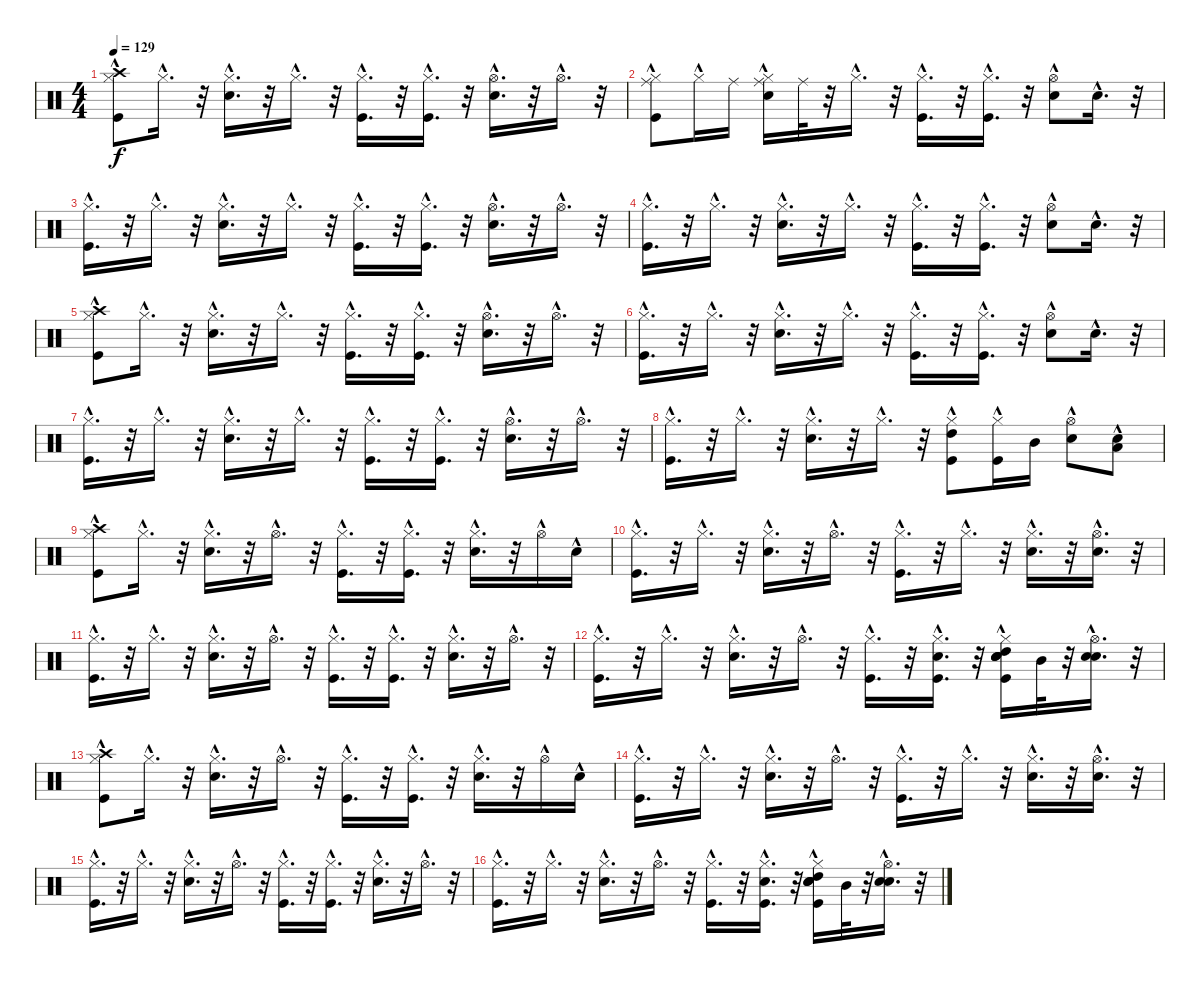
\track "" {instrument percussion}
\staff {score}
\articulation defaults
\ts (4 4)
\tempo 129
\clef neutral
\ks c
("Hi-Hat (closed)"{hac} "Kick (hit)"{hac} "Crash high (hit)").8{dy f} "Hi-Hat (closed)"{hac}.16{d} r.32 ("Snare (hit) 2"{hac} "Hi-Hat (closed)"{hac}).16{d} r.32 "Hi-Hat (closed)"{hac}.16{d} r.32 ("Kick (hit)"{hac} "Hi-Hat (closed)"{hac}).16{d} r.32 ("Kick (hit)"{hac} "Hi-Hat (closed)"{hac}).16{d} r.32 ("Hi-Hat (open)"{hac} "Snare (hit) 2"{hac}).16{d} r.32 "Hi-Hat (open)"{hac}.16{d} r.32 |
("Hi-Hat (closed)"{hac} "Ride (middle)" "Kick (hit)"{hac}).8 "Hi-Hat (closed)"{hac}.16 "Ride (middle)".16 ("Ride (middle)" "Hi-Hat (closed)"{hac} "Snare (hit) 2"{hac}).16 "Ride (middle)".32 r.32 "Hi-Hat (closed)"{hac}.16{d} r.32 ("Kick (hit)"{hac} "Hi-Hat (closed)"{hac}).16{d} r.32 ("Kick (hit)"{hac} "Hi-Hat (closed)"{hac}).16{d} r.32 ("Hi-Hat (open)" "Snare (hit) 2"{hac}).8 "Snare (hit) 2"{hac}.16{d} r.32 |
("Hi-Hat (closed)"{hac} "Kick (hit)"{hac}).16{d} r.32 "Hi-Hat (closed)"{hac}.16{d} r.32 ("Snare (hit) 2"{hac} "Hi-Hat (closed)"{hac}).16{d} r.32 "Hi-Hat (closed)"{hac}.16{d} r.32 ("Kick (hit)"{hac} "Hi-Hat (closed)"{hac}).16{d} r.32 ("Kick (hit)"{hac} "Hi-Hat (closed)"{hac}).16{d} r.32 ("Hi-Hat (open)"{hac} "Snare (hit) 2"{hac}).16{d} r.32 "Hi-Hat (open)"{hac}.16{d} r.32 |
("Hi-Hat (closed)"{hac} "Kick (hit)"{hac}).16{d} r.32 "Hi-Hat (closed)"{hac}.16{d} r.32 ("Hi-Hat (closed)"{hac} "Snare (hit) 2"{hac}).16{d} r.32 "Hi-Hat (closed)"{hac}.16{d} r.32 ("Kick (hit)"{hac} "Hi-Hat (closed)"{hac}).16{d} r.32 ("Kick (hit)"{hac} "Hi-Hat (closed)"{hac}).16{d} r.32 ("Hi-Hat (open)" "Snare (hit) 2"{hac}).8 "Snare (hit) 2"{hac}.16{d} r.32 |
("Crash high (hit)" "Hi-Hat (closed)"{hac} "Kick (hit)"{hac}).8 "Hi-Hat (closed)"{hac}.16{d} r.32 ("Snare (hit) 2"{hac} "Hi-Hat (closed)"{hac}).16{d} r.32 "Hi-Hat (closed)"{hac}.16{d} r.32 ("Kick (hit)"{hac} "Hi-Hat (closed)"{hac}).16{d} r.32 ("Kick (hit)"{hac} "Hi-Hat (closed)"{hac}).16{d} r.32 ("Hi-Hat (open)"{hac} "Snare (hit) 2"{hac}).16{d} r.32 "Hi-Hat (open)"{hac}.16{d} r.32 |
("Hi-Hat (closed)"{hac} "Kick (hit)"{hac}).16{d} r.32 "Hi-Hat (closed)"{hac}.16{d} r.32 ("Hi-Hat (closed)"{hac} "Snare (hit) 2"{hac}).16{d} r.32 "Hi-Hat (closed)"{hac}.16{d} r.32 ("Kick (hit)"{hac} "Hi-Hat (closed)"{hac}).16{d} r.32 ("Kick (hit)"{hac} "Hi-Hat (closed)"{hac}).16{d} r.32 ("Hi-Hat (open)" "Snare (hit) 2"{hac}).8 "Snare (hit) 2"{hac}.16{d} r.32 |
("Hi-Hat (closed)"{hac} "Kick (hit)"{hac}).16{d} r.32 "Hi-Hat (closed)"{hac}.16{d} r.32 ("Snare (hit) 2"{hac} "Hi-Hat (closed)"{hac}).16{d} r.32 "Hi-Hat (closed)"{hac}.16{d} r.32 ("Kick (hit)"{hac} "Hi-Hat (closed)"{hac}).16{d} r.32 ("Kick (hit)"{hac} "Hi-Hat (closed)"{hac}).16{d} r.32 ("Hi-Hat (open)"{hac} "Snare (hit) 2"{hac}).16{d} r.32 "Hi-Hat (open)"{hac}.16{d} r.32 |
("Hi-Hat (closed)"{hac} "Kick (hit)"{hac}).16{d} r.32 "Hi-Hat (closed)"{hac}.16{d} r.32 ("Hi-Hat (closed)"{hac} "Snare (hit) 2"{hac}).16{d} r.32 "Hi-Hat (closed)"{hac}.16{d} r.32 ("High Tom (hit)" "Kick (hit)"{hac} "Hi-Hat (closed)"{hac}).8 ("Kick (hit)"{hac} "Hi-Hat (closed)"{hac}).16 "Mid Tom (hit)".16 ("Hi-Hat (open)" "Snare (hit) 2"{hac}).8 ("Low Tom (hit)" "Snare (hit) 2"{hac}).8 |
("Hi-Hat (closed)"{hac} "Crash high (hit)" "Kick (hit)"{hac}).8 "Hi-Hat (closed)"{hac}.16{d} r.32 ("Hi-Hat (closed)"{hac} "Snare (hit) 2"{hac}).16{d} r.32 "Hi-Hat (open)"{hac}.16{d} r.32 ("Hi-Hat (closed)"{hac} "Kick (hit)"{hac}).16{d} r.32 ("Hi-Hat (closed)"{hac} "Kick (hit)"{hac}).16{d} r.32 ("Hi-Hat (closed)"{hac} "Snare (hit) 2"{hac}).16{d} r.32 "Hi-Hat (open)"{hac}.16 "Snare (hit) 2"{hac}.16 |
("Kick (hit)"{hac} "Hi-Hat (closed)"{hac}).16{d} r.32 "Hi-Hat (closed)"{hac}.16{d} r.32 ("Hi-Hat (closed)"{hac} "Snare (hit) 2"{hac}).16{d} r.32 "Hi-Hat (open)"{hac}.16{d} r.32 ("Hi-Hat (closed)"{hac} "Kick (hit)"{hac}).16{d} r.32 "Hi-Hat (closed)"{hac}.16{d} r.32 ("Hi-Hat (closed)"{hac} "Snare (hit) 2"{hac}).16{d} r.32 ("Hi-Hat (open)"{hac} "Snare (hit) 2"{hac}).16{d} r.32 |
("Hi-Hat (closed)"{hac} "Kick (hit)"{hac}).16{d} r.32 "Hi-Hat (closed)"{hac}.16{d} r.32 ("Hi-Hat (closed)"{hac} "Snare (hit) 2"{hac}).16{d} r.32 "Hi-Hat (open)"{hac}.16{d} r.32 ("Hi-Hat (closed)"{hac} "Kick (hit)"{hac}).16{d} r.32 ("Hi-Hat (closed)"{hac} "Kick (hit)"{hac}).16{d} r.32 ("Hi-Hat (closed)"{hac} "Snare (hit) 2"{hac}).16{d} r.32 "Hi-Hat (open)"{hac}.16{d} r.32 |
("Hi-Hat (closed)"{hac} "Kick (hit)"{hac}).16{d} r.32 "Hi-Hat (closed)"{hac}.16{d} r.32 ("Hi-Hat (closed)"{hac} "Snare (hit) 2"{hac}).16{d} r.32 "Hi-Hat (open)"{hac}.16{d} r.32 ("Hi-Hat (closed)"{hac} "Kick (hit)"{hac}).16{d} r.32 ("Hi-Hat (closed)"{hac} "Snare (hit) 2"{hac} "Kick (hit)"{hac}).16{d} r.32 ("High Tom (hit)" "Hi-Hat (closed)"{hac} "Hand Clap (hit)"{hac} "Electric Snare (hit)"{hac} "Snare (hit) 2"{hac} "Kick (hit)"{hac}).16 "Mid Tom (hit)".32 r.32 ("Hi-Hat (open)"{hac} "Hand Clap (hit)"{hac} "Snare (hit) 2"{hac}).16{d} r.32 |
("Hi-Hat (closed)"{hac} "Crash high (hit)" "Kick (hit)"{hac}).8 "Hi-Hat (closed)"{hac}.16{d} r.32 ("Hi-Hat (closed)"{hac} "Snare (hit) 2"{hac}).16{d} r.32 "Hi-Hat (open)"{hac}.16{d} r.32 ("Hi-Hat (closed)"{hac} "Kick (hit)"{hac}).16{d} r.32 ("Hi-Hat (closed)"{hac} "Kick (hit)"{hac}).16{d} r.32 ("Hi-Hat (closed)"{hac} "Snare (hit) 2"{hac}).16{d} r.32 "Hi-Hat (open)"{hac}.16 "Snare (hit) 2"{hac}.16 |
("Kick (hit)"{hac} "Hi-Hat (closed)"{hac}).16{d} r.32 "Hi-Hat (closed)"{hac}.16{d} r.32 ("Hi-Hat (closed)"{hac} "Snare (hit) 2"{hac}).16{d} r.32 "Hi-Hat (open)"{hac}.16{d} r.32 ("Hi-Hat (closed)"{hac} "Kick (hit)"{hac}).16{d} r.32 "Hi-Hat (closed)"{hac}.16{d} r.32 ("Hi-Hat (closed)"{hac} "Snare (hit) 2"{hac}).16{d} r.32 ("Hi-Hat (open)"{hac} "Snare (hit) 2"{hac}).16{d} r.32 |
("Hi-Hat (closed)"{hac} "Kick (hit)"{hac}).16{d} r.32 "Hi-Hat (closed)"{hac}.16{d} r.32 ("Hi-Hat (closed)"{hac} "Snare (hit) 2"{hac}).16{d} r.32 "Hi-Hat (open)"{hac}.16{d} r.32 ("Hi-Hat (closed)"{hac} "Kick (hit)"{hac}).16{d} r.32 ("Hi-Hat (closed)"{hac} "Kick (hit)"{hac}).16{d} r.32 ("Hi-Hat (closed)"{hac} "Snare (hit) 2"{hac}).16{d} r.32 "Hi-Hat (open)"{hac}.16{d} r.32 |
("Hi-Hat (closed)"{hac} "Kick (hit)"{hac}).16{d} r.32 "Hi-Hat (closed)"{hac}.16{d} r.32 ("Hi-Hat (closed)"{hac} "Snare (hit) 2"{hac}).16{d} r.32 "Hi-Hat (open)"{hac}.16{d} r.32 ("Hi-Hat (closed)"{hac} "Kick (hit)"{hac}).16{d} r.32 ("Hi-Hat (closed)"{hac} "Snare (hit) 2"{hac} "Kick (hit)"{hac}).16{d} r.32 ("High Tom (hit)" "Hi-Hat (closed)"{hac} "Hand Clap (hit)"{hac} "Electric Snare (hit)"{hac} "Snare (hit) 2"{hac} "Kick (hit)"{hac}).16 "Mid Tom (hit)".32 r.32 ("Hi-Hat (open)"{hac} "Hand Clap (hit)"{hac} "Snare (hit) 2"{hac}).16{d} r.32
